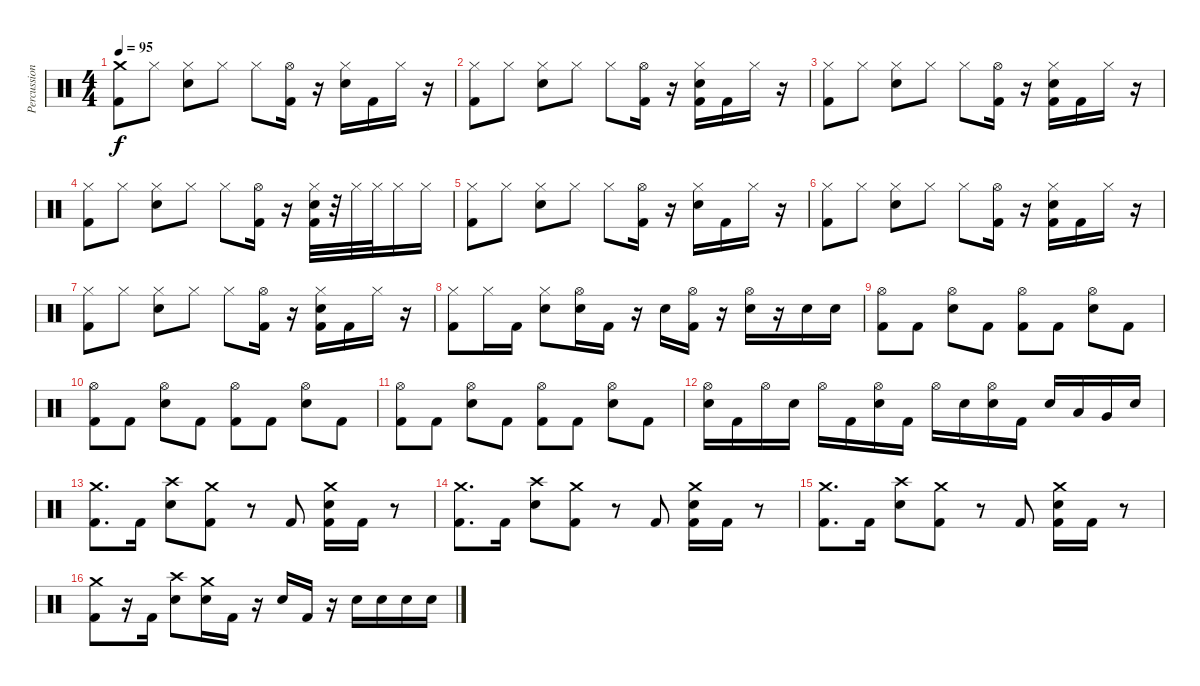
\track ("Percussion" "Percussion") {instrument percussion}
\staff {score}
\articulation defaults
\ts (4 4)
\tempo 95
\clef neutral
\ks c
("Crash medium (hit)" "Kick (hit) 2").8{dy f} "Hi-Hat (closed)".8 ("Hi-Hat (closed)" "Electric Snare (hit)").8 "Hi-Hat (closed)".8 "Hi-Hat (closed)".8 ("Hi-Hat (open)" "Kick (hit) 2").16 r.16 ("Hi-Hat (closed)" "Electric Snare (hit)").16 "Kick (hit) 2".16 "Hi-Hat (closed)".16 r.16 |
("Hi-Hat (closed)" "Kick (hit) 2").8 "Hi-Hat (closed)".8 ("Hi-Hat (closed)" "Electric Snare (hit)").8 "Hi-Hat (closed)".8 "Hi-Hat (closed)".8 ("Hi-Hat (open)" "Kick (hit) 2").16 r.16 ("Hi-Hat (closed)" "Electric Snare (hit)" "Kick (hit) 2").16 "Kick (hit) 2".16 "Hi-Hat (closed)".16 r.16 |
("Hi-Hat (closed)" "Kick (hit) 2").8 "Hi-Hat (closed)".8 ("Hi-Hat (closed)" "Electric Snare (hit)").8 "Hi-Hat (closed)".8 "Hi-Hat (closed)".8 ("Hi-Hat (open)" "Kick (hit) 2").16 r.16 ("Hi-Hat (closed)" "Electric Snare (hit)" "Kick (hit) 2").16 "Kick (hit) 2".16 "Hi-Hat (closed)".16 r.16 |
("Hi-Hat (closed)" "Kick (hit) 2").8 "Hi-Hat (closed)".8 ("Hi-Hat (closed)" "Electric Snare (hit)").8 "Hi-Hat (closed)".8 "Hi-Hat (closed)".8 ("Hi-Hat (open)" "Kick (hit) 2").16 r.16 ("Hi-Hat (closed)" "Electric Snare (hit)" "Kick (hit) 2").32 r.32 "Hi-Hat (closed)".32 "Hi-Hat (closed)".32 "Hi-Hat (closed)".16 "Hi-Hat (closed)".16 |
("Hi-Hat (closed)" "Kick (hit) 2").8 "Hi-Hat (closed)".8 ("Hi-Hat (closed)" "Electric Snare (hit)").8 "Hi-Hat (closed)".8 "Hi-Hat (closed)".8 ("Hi-Hat (open)" "Kick (hit) 2").16 r.16 ("Hi-Hat (closed)" "Electric Snare (hit)").16 "Kick (hit) 2".16 "Hi-Hat (closed)".16 r.16 |
("Hi-Hat (closed)" "Kick (hit) 2").8 "Hi-Hat (closed)".8 ("Hi-Hat (closed)" "Electric Snare (hit)").8 "Hi-Hat (closed)".8 "Hi-Hat (closed)".8 ("Hi-Hat (open)" "Kick (hit) 2").16 r.16 ("Hi-Hat (closed)" "Electric Snare (hit)" "Kick (hit) 2").16 "Kick (hit) 2".16 "Hi-Hat (closed)".16 r.16 |
("Hi-Hat (closed)" "Kick (hit) 2").8 "Hi-Hat (closed)".8 ("Hi-Hat (closed)" "Electric Snare (hit)").8 "Hi-Hat (closed)".8 "Hi-Hat (closed)".8 ("Hi-Hat (open)" "Kick (hit) 2").16 r.16 ("Hi-Hat (closed)" "Electric Snare (hit)" "Kick (hit) 2").16 "Kick (hit) 2".16 "Hi-Hat (closed)".16 r.16 |
("Hi-Hat (closed)" "Kick (hit) 2").8 "Hi-Hat (closed)".16 "Kick (hit) 2".16 ("Hi-Hat (closed)" "Electric Snare (hit)").8 ("Hi-Hat (open)" "Electric Snare (hit)").16 "Kick (hit) 2".16 r.16 "Electric Snare (hit)".16 ("Hi-Hat (open)" "Kick (hit) 2").16 r.16 ("Hi-Hat (open)" "Electric Snare (hit)").16 r.16 "Electric Snare (hit)".16 "Electric Snare (hit)".16 |
("Hi-Hat (open)" "Kick (hit) 2").8 "Kick (hit) 2".8 ("Hi-Hat (open)" "Electric Snare (hit)").8 "Kick (hit) 2".8 ("Hi-Hat (open)" "Kick (hit) 2").8 "Kick (hit) 2".8 ("Hi-Hat (open)" "Electric Snare (hit)").8 "Kick (hit) 2".8 |
("Hi-Hat (open)" "Kick (hit) 2").8 "Kick (hit) 2".8 ("Hi-Hat (open)" "Electric Snare (hit)").8 "Kick (hit) 2".8 ("Hi-Hat (open)" "Kick (hit) 2").8 "Kick (hit) 2".8 ("Hi-Hat (open)" "Electric Snare (hit)").8 "Kick (hit) 2".8 |
("Hi-Hat (open)" "Kick (hit) 2").8 "Kick (hit) 2".8 ("Hi-Hat (open)" "Electric Snare (hit)").8 "Kick (hit) 2".8 ("Hi-Hat (open)" "Kick (hit) 2").8 "Kick (hit) 2".8 ("Hi-Hat (open)" "Electric Snare (hit)").8 "Kick (hit) 2".8 |
("Hi-Hat (open)" "Electric Snare (hit)").16 "Kick (hit) 2".16 "Hi-Hat (open)".16 "Electric Snare (hit)".16 "Hi-Hat (open)".16 "Kick (hit) 2".16 ("Hi-Hat (open)" "Electric Snare (hit)").16 "Kick (hit) 2".16 "Hi-Hat (open)".16 "Electric Snare (hit)".16 ("Hi-Hat (open)" "Electric Snare (hit)").16 "Kick (hit) 2".16 "Electric Snare (hit)".16 "Low Tom (hit)".16 "Very Low Tom (hit)".16 "Electric Snare (hit)".16 |
("Crash medium (hit)" "Kick (hit) 2").8{d} "Kick (hit) 2".16 ("Crash high (hit)" "Electric Snare (hit)").8 ("Crash medium (hit)" "Kick (hit) 2").8 r.8 "Kick (hit) 2".8 ("Crash medium (hit)" "Electric Snare (hit)" "Kick (hit) 2").16 "Kick (hit) 2".16 r.8 |
("Crash medium (hit)" "Kick (hit) 2").8{d} "Kick (hit) 2".16 ("Crash high (hit)" "Electric Snare (hit)").8 ("Crash medium (hit)" "Kick (hit) 2").8 r.8 "Kick (hit) 2".8 ("Crash medium (hit)" "Electric Snare (hit)" "Kick (hit) 2").16 "Kick (hit) 2".16 r.8 |
("Crash medium (hit)" "Kick (hit) 2").8{d} "Kick (hit) 2".16 ("Crash high (hit)" "Electric Snare (hit)").8 ("Crash medium (hit)" "Kick (hit) 2").8 r.8 "Kick (hit) 2".8 ("Crash medium (hit)" "Electric Snare (hit)" "Kick (hit) 2").16 "Kick (hit) 2".16 r.8 |
("Crash medium (hit)" "Kick (hit) 2").8 r.16 "Kick (hit) 2".16 ("Crash high (hit)" "Electric Snare (hit)").8 ("Crash medium (hit)" "Electric Snare (hit)").16 "Kick (hit) 2".16 r.16 "Electric Snare (hit)".16 "Kick (hit) 2".16 r.16 "Electric Snare (hit)".16 "Electric Snare (hit)".16 "Electric Snare (hit)".16 "Electric Snare (hit)".16
